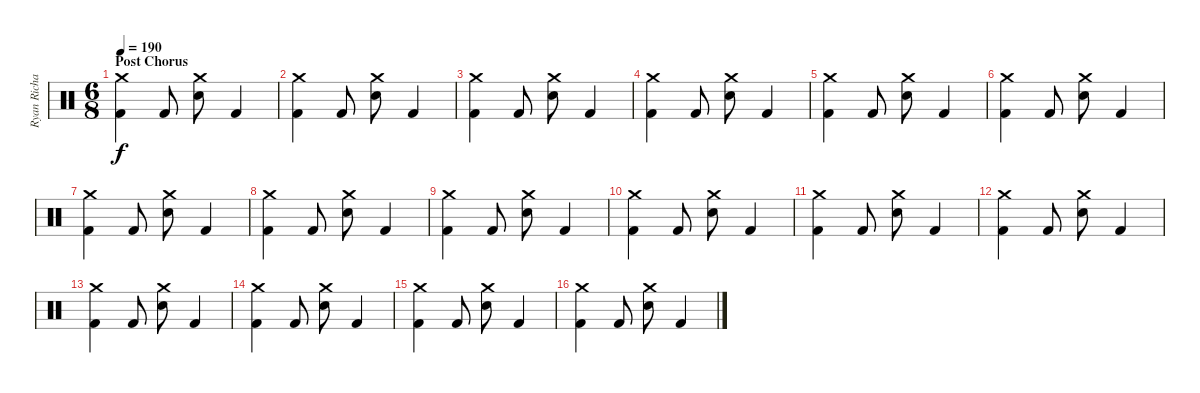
\track ("Ryan Richards" "Ryan Richa") {instrument percussion bank 127}
\staff {score}
\articulation defaults
\ts (6 8)
\section ("" "Post Chorus")
\tempo 190
\clef neutral
\ks c
("Crash medium (hit)" "Kick (hit) 2").4{dy f} "Kick (hit) 2".8 ("Crash medium (hit)" "Snare (hit) 2").8 "Kick (hit) 2".4 |
("Crash medium (hit)" "Kick (hit) 2").4 "Kick (hit) 2".8 ("Crash medium (hit)" "Snare (hit) 2").8 "Kick (hit) 2".4 |
("Crash medium (hit)" "Kick (hit) 2").4 "Kick (hit) 2".8 ("Crash medium (hit)" "Snare (hit) 2").8 "Kick (hit) 2".4 |
("Crash medium (hit)" "Kick (hit) 2").4 "Kick (hit) 2".8 ("Crash medium (hit)" "Snare (hit) 2").8 "Kick (hit) 2".4 |
("Crash medium (hit)" "Kick (hit) 2").4 "Kick (hit) 2".8 ("Crash medium (hit)" "Snare (hit) 2").8 "Kick (hit) 2".4 |
("Crash medium (hit)" "Kick (hit) 2").4 "Kick (hit) 2".8 ("Crash medium (hit)" "Snare (hit) 2").8 "Kick (hit) 2".4 |
("Crash medium (hit)" "Kick (hit) 2").4 "Kick (hit) 2".8 ("Crash medium (hit)" "Snare (hit) 2").8 "Kick (hit) 2".4 |
("Crash medium (hit)" "Kick (hit) 2").4 "Kick (hit) 2".8 ("Crash medium (hit)" "Snare (hit) 2").8 "Kick (hit) 2".4 |
("Crash medium (hit)" "Kick (hit) 2").4 "Kick (hit) 2".8 ("Crash medium (hit)" "Snare (hit) 2").8 "Kick (hit) 2".4 |
("Crash medium (hit)" "Kick (hit) 2").4 "Kick (hit) 2".8 ("Crash medium (hit)" "Snare (hit) 2").8 "Kick (hit) 2".4 |
("Crash medium (hit)" "Kick (hit) 2").4 "Kick (hit) 2".8 ("Crash medium (hit)" "Snare (hit) 2").8 "Kick (hit) 2".4 |
("Crash medium (hit)" "Kick (hit) 2").4 "Kick (hit) 2".8 ("Crash medium (hit)" "Snare (hit) 2").8 "Kick (hit) 2".4 |
("Crash medium (hit)" "Kick (hit) 2").4 "Kick (hit) 2".8 ("Crash medium (hit)" "Snare (hit) 2").8 "Kick (hit) 2".4 |
("Crash medium (hit)" "Kick (hit) 2").4 "Kick (hit) 2".8 ("Crash medium (hit)" "Snare (hit) 2").8 "Kick (hit) 2".4 |
("Crash medium (hit)" "Kick (hit) 2").4 "Kick (hit) 2".8 ("Crash medium (hit)" "Snare (hit) 2").8 "Kick (hit) 2".4 |
("Crash medium (hit)" "Kick (hit) 2").4 "Kick (hit) 2".8 ("Crash medium (hit)" "Snare (hit) 2").8 "Kick (hit) 2".4
